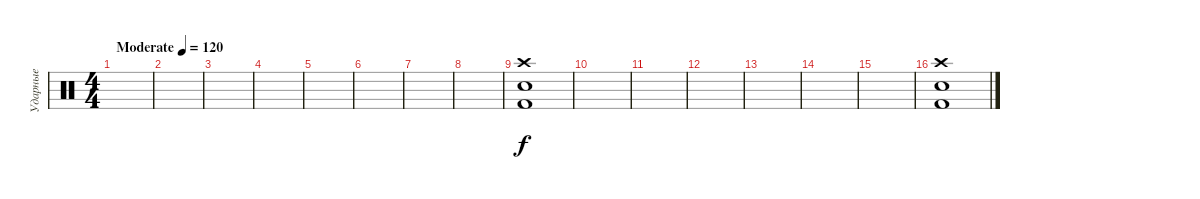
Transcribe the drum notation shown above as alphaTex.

\track ("Ударные" "Ударные") {instrument percussion}
\staff {score}
\articulation defaults
\ts (4 4)
\tempo (120 "Moderate")
\clef neutral
\ks c
|
|
|
|
|
|
|
|
("Crash high (hit)" "Electric Snare (hit)" "Kick (hit) 2").1 |
|
|
|
|
|
|
("Crash high (hit)" "Electric Snare (hit)" "Kick (hit) 2").1
